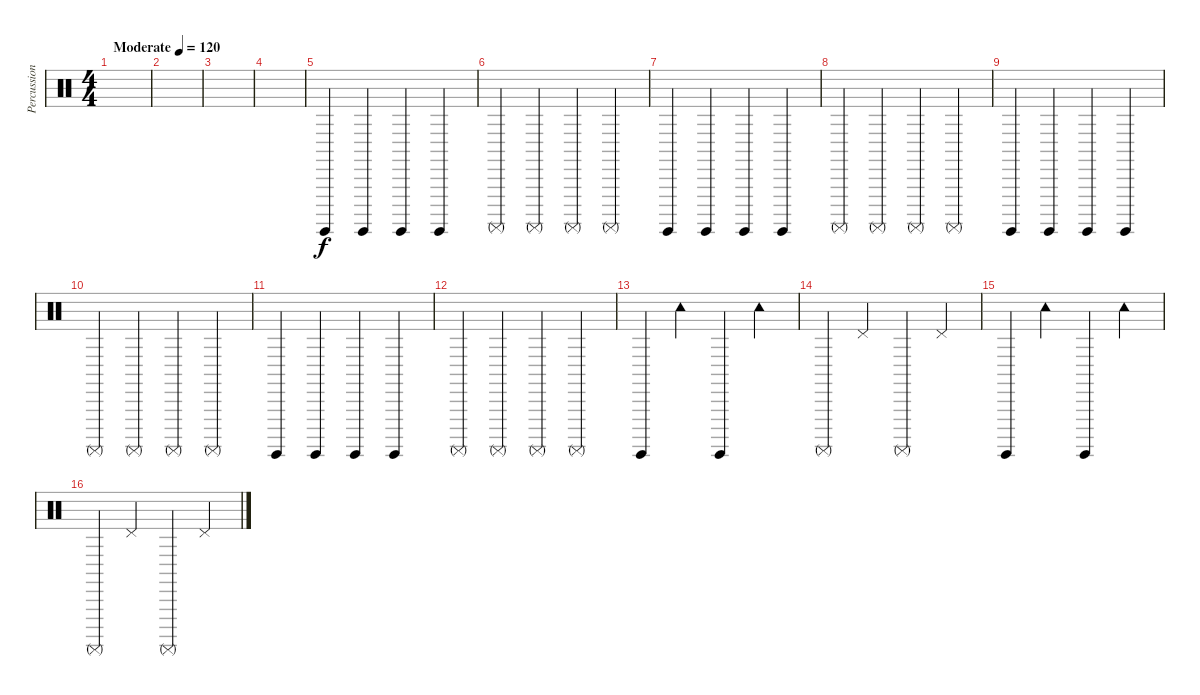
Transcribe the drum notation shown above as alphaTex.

\track ("Percussion" "Percussion") {instrument percussion}
\staff {score}
\articulation defaults
\ts (4 4)
\tempo (120 "Moderate")
\clef neutral
\ks c
|
|
|
|
"Surdo (hit)".4 "Surdo (hit)".4 "Surdo (hit)".4 "Surdo (hit)".4 |
"Surdo (mute)".4 "Surdo (mute)".4 "Surdo (mute)".4 "Surdo (mute)".4 |
"Surdo (hit)".4 "Surdo (hit)".4 "Surdo (hit)".4 "Surdo (hit)".4 |
"Surdo (mute)".4 "Surdo (mute)".4 "Surdo (mute)".4 "Surdo (mute)".4 |
"Surdo (hit)".4 "Surdo (hit)".4 "Surdo (hit)".4 "Surdo (hit)".4 |
"Surdo (mute)".4 "Surdo (mute)".4 "Surdo (mute)".4 "Surdo (mute)".4 |
"Surdo (hit)".4 "Surdo (hit)".4 "Surdo (hit)".4 "Surdo (hit)".4 |
"Surdo (mute)".4 "Surdo (mute)".4 "Surdo (mute)".4 "Surdo (mute)".4 |
"Surdo (hit)".4 "Tambourine (hit)".4 "Surdo (hit)".4 "Tambourine (hit)".4 |
"Surdo (mute)".4 "Pedal Hi-Hat (hit)".4 "Surdo (mute)".4 "Pedal Hi-Hat (hit)".4 |
"Surdo (hit)".4 "Tambourine (hit)".4 "Surdo (hit)".4 "Tambourine (hit)".4 |
"Surdo (mute)".4 "Pedal Hi-Hat (hit)".4 "Surdo (mute)".4 "Pedal Hi-Hat (hit)".4
